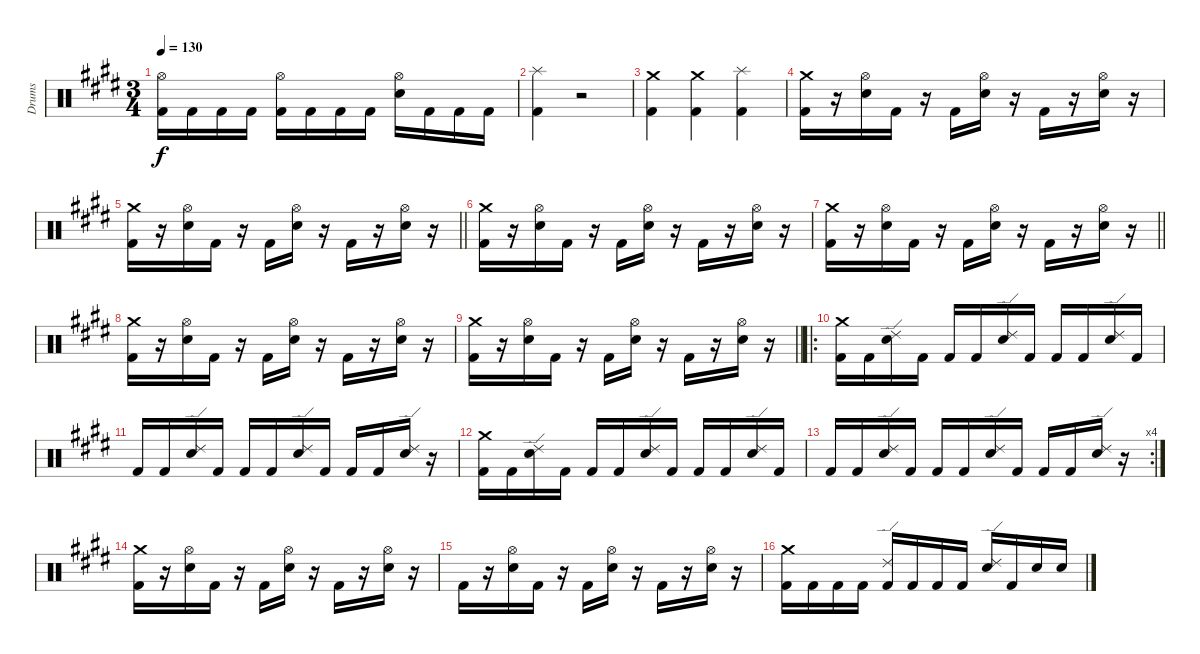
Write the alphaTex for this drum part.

\track ("Drums" "Drums") {instrument percussion}
\staff {score}
\articulation defaults
\ts (3 4)
\tempo 130
\clef neutral
\ks e
("Kick (hit) 2" "Hi-Hat (open)").16{dy f} "Kick (hit) 2".16 "Kick (hit) 2".16 "Kick (hit) 2".16 ("Kick (hit) 2" "Hi-Hat (open)").16 "Kick (hit) 2".16 "Kick (hit) 2".16 "Kick (hit) 2".16 ("Electric Snare (hit)" "Hi-Hat (open)").16 "Kick (hit) 2".16 "Kick (hit) 2".16 "Kick (hit) 2".16 |
("Kick (hit) 2" "Splash (hit)").4 r.2 |
("Kick (hit) 2" "Crash medium (hit)").4 ("Kick (hit) 2" "Crash medium (hit)").4 ("Kick (hit) 2" "Splash (hit)").4 |
("Kick (hit) 2" "Crash medium (hit)").16 r.16 ("Electric Snare (hit)" "Hi-Hat (open)").16 "Kick (hit) 2".16 r.16 "Kick (hit) 2".16 ("Electric Snare (hit)" "Hi-Hat (open)").16 r.16 "Kick (hit) 2".16 r.16 ("Electric Snare (hit)" "Hi-Hat (open)").16 r.16 |
\barLineRight lightlight
("Kick (hit) 2" "Crash medium (hit)").16 r.16 ("Electric Snare (hit)" "Hi-Hat (open)").16 "Kick (hit) 2".16 r.16 "Kick (hit) 2".16 ("Electric Snare (hit)" "Hi-Hat (open)").16 r.16 "Kick (hit) 2".16 r.16 ("Electric Snare (hit)" "Hi-Hat (open)").16 r.16 |
("Kick (hit) 2" "Crash medium (hit)").16 r.16 ("Electric Snare (hit)" "Hi-Hat (open)").16 "Kick (hit) 2".16 r.16 "Kick (hit) 2".16 ("Electric Snare (hit)" "Hi-Hat (open)").16 r.16 "Kick (hit) 2".16 r.16 ("Electric Snare (hit)" "Hi-Hat (open)").16 r.16 |
\barLineRight lightlight
("Kick (hit) 2" "Crash medium (hit)").16 r.16 ("Electric Snare (hit)" "Hi-Hat (open)").16 "Kick (hit) 2".16 r.16 "Kick (hit) 2".16 ("Electric Snare (hit)" "Hi-Hat (open)").16 r.16 "Kick (hit) 2".16 r.16 ("Electric Snare (hit)" "Hi-Hat (open)").16 r.16 |
("Kick (hit) 2" "Crash medium (hit)").16 r.16 ("Electric Snare (hit)" "Hi-Hat (open)").16 "Kick (hit) 2".16 r.16 "Kick (hit) 2".16 ("Electric Snare (hit)" "Hi-Hat (open)").16 r.16 "Kick (hit) 2".16 r.16 ("Electric Snare (hit)" "Hi-Hat (open)").16 r.16 |
\barLineRight lightlight
("Kick (hit) 2" "Crash medium (hit)").16 r.16 ("Electric Snare (hit)" "Hi-Hat (open)").16 "Kick (hit) 2".16 r.16 "Kick (hit) 2".16 ("Electric Snare (hit)" "Hi-Hat (open)").16 r.16 "Kick (hit) 2".16 r.16 ("Electric Snare (hit)" "Hi-Hat (open)").16 r.16 |
\ro
("Kick (hit) 2" "Crash medium (hit)").16 "Kick (hit) 2".16 ("Electric Snare (hit)" "Ride (edge) 2").16 "Kick (hit) 2".16 "Kick (hit) 2".16 "Kick (hit) 2".16 ("Electric Snare (hit)" "Ride (edge) 2").16 "Kick (hit) 2".16 "Kick (hit) 2".16 "Kick (hit) 2".16 ("Electric Snare (hit)" "Ride (edge) 2").16 "Kick (hit) 2".16 |
"Kick (hit) 2".16 "Kick (hit) 2".16 ("Electric Snare (hit)" "Ride (edge) 2").16 "Kick (hit) 2".16 "Kick (hit) 2".16 "Kick (hit) 2".16 ("Electric Snare (hit)" "Ride (edge) 2").16 "Kick (hit) 2".16 "Kick (hit) 2".16 "Kick (hit) 2".16 ("Electric Snare (hit)" "Ride (edge) 2").16 r.16 |
("Kick (hit) 2" "Crash medium (hit)").16 "Kick (hit) 2".16 ("Electric Snare (hit)" "Ride (edge) 2").16 "Kick (hit) 2".16 "Kick (hit) 2".16 "Kick (hit) 2".16 ("Electric Snare (hit)" "Ride (edge) 2").16 "Kick (hit) 2".16 "Kick (hit) 2".16 "Kick (hit) 2".16 ("Electric Snare (hit)" "Ride (edge) 2").16 "Kick (hit) 2".16 |
\rc 4 "Kick (hit) 2".16 "Kick (hit) 2".16
("Electric Snare (hit)" "Ride (edge) 2").16 "Kick (hit) 2".16 "Kick (hit) 2".16 "Kick (hit) 2".16 ("Electric Snare (hit)" "Ride (edge) 2").16 "Kick (hit) 2".16 "Kick (hit) 2".16 "Kick (hit) 2".16 ("Electric Snare (hit)" "Ride (edge) 2").16 r.16 |
("Kick (hit) 2" "Crash medium (hit)").16 r.16 ("Electric Snare (hit)" "Hi-Hat (open)").16 "Kick (hit) 2".16 r.16 "Kick (hit) 2".16 ("Electric Snare (hit)" "Hi-Hat (open)").16 r.16 "Kick (hit) 2".16 r.16 ("Electric Snare (hit)" "Hi-Hat (open)").16 r.16 |
"Kick (hit) 2".16 r.16 ("Electric Snare (hit)" "Hi-Hat (open)").16 "Kick (hit) 2".16 r.16 "Kick (hit) 2".16 ("Electric Snare (hit)" "Hi-Hat (open)").16 r.16 "Kick (hit) 2".16 r.16 ("Electric Snare (hit)" "Hi-Hat (open)").16 r.16 |
("Kick (hit) 2" "Crash medium (hit)").16 "Kick (hit) 2".16 "Kick (hit) 2".16 "Kick (hit) 2".16 ("Kick (hit) 2" "Ride (edge) 2").16 "Kick (hit) 2".16 "Kick (hit) 2".16 "Kick (hit) 2".16 ("Electric Snare (hit)" "Ride (edge) 2").16 "Kick (hit) 2".16 "Electric Snare (hit)".16 "Electric Snare (hit)".16
